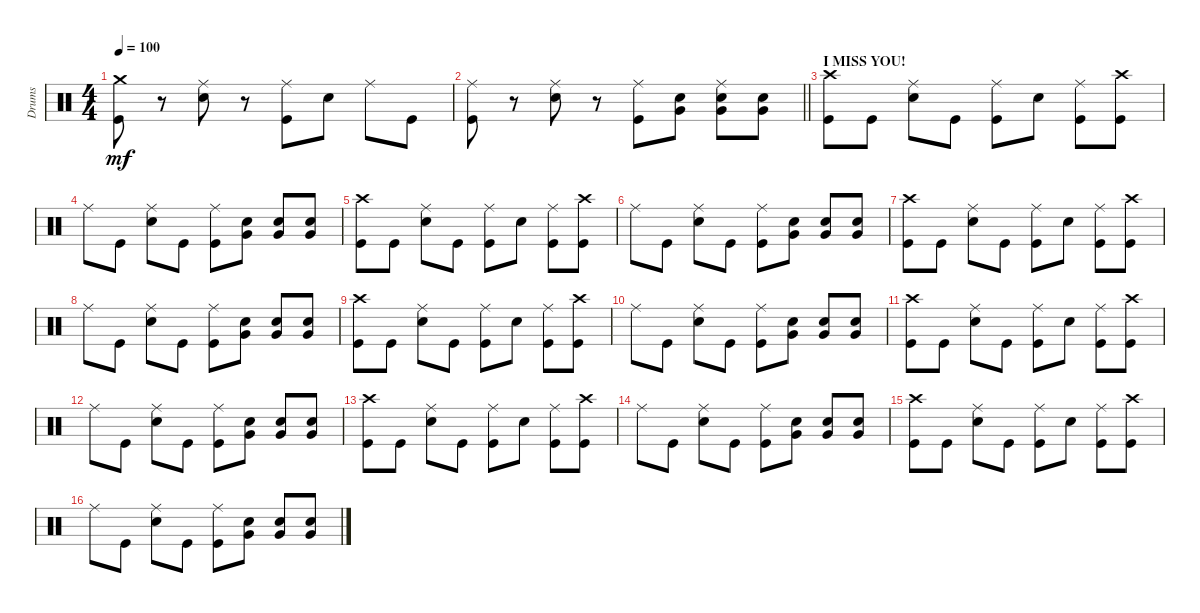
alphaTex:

\track ("Drums" "Drums") {instrument percussion}
\staff {score}
\articulation defaults
\ts (4 4)
\tempo 100
\clef neutral
\ks c
("Crash medium (hit)" "Kick (hit)").8{dy mf} r.8 ("Ride (middle)" "Snare (hit) 2").8 r.8 ("Ride (middle)" "Kick (hit)").8 "Snare (hit) 2".8 "Ride (middle)".8 "Kick (hit)".8 |
\barLineRight lightlight
("Ride (middle)" "Kick (hit)").8 r.8 ("Ride (middle)" "Snare (hit) 2").8 r.8 ("Ride (middle)" "Kick (hit)").8 ("Very Low Tom (hit)" "Snare (hit) 2").8 ("Ride (middle)" "Very Low Tom (hit)" "Snare (hit) 2").8 ("Very Low Tom (hit)" "Snare (hit) 2").8 |
\section ("" "I MISS YOU!")
("Crash high (hit)" "Kick (hit)").8 "Kick (hit)".8 ("Ride (middle)" "Snare (hit) 2").8 "Kick (hit)".8 ("Ride (middle)" "Kick (hit)").8 "Snare (hit) 2".8 ("Ride (middle)" "Kick (hit)").8 ("Crash high (hit)" "Kick (hit)").8 |
"Ride (middle)".8 "Kick (hit)".8 ("Ride (middle)" "Snare (hit) 2").8 "Kick (hit)".8 ("Ride (middle)" "Kick (hit)").8 ("Very Low Tom (hit)" "Snare (hit) 2").8 ("Very Low Tom (hit)" "Snare (hit) 2").8 ("Very Low Tom (hit)" "Snare (hit) 2").8 |
("Crash high (hit)" "Kick (hit)").8 "Kick (hit)".8 ("Ride (middle)" "Snare (hit) 2").8 "Kick (hit)".8 ("Ride (middle)" "Kick (hit)").8 "Snare (hit) 2".8 ("Ride (middle)" "Kick (hit)").8 ("Crash high (hit)" "Kick (hit)").8 |
"Ride (middle)".8 "Kick (hit)".8 ("Ride (middle)" "Snare (hit) 2").8 "Kick (hit)".8 ("Ride (middle)" "Kick (hit)").8 ("Very Low Tom (hit)" "Snare (hit) 2").8 ("Very Low Tom (hit)" "Snare (hit) 2").8 ("Very Low Tom (hit)" "Snare (hit) 2").8 |
("Crash high (hit)" "Kick (hit)").8 "Kick (hit)".8 ("Ride (middle)" "Snare (hit) 2").8 "Kick (hit)".8 ("Ride (middle)" "Kick (hit)").8 "Snare (hit) 2".8 ("Ride (middle)" "Kick (hit)").8 ("Crash high (hit)" "Kick (hit)").8 |
"Ride (middle)".8 "Kick (hit)".8 ("Ride (middle)" "Snare (hit) 2").8 "Kick (hit)".8 ("Ride (middle)" "Kick (hit)").8 ("Very Low Tom (hit)" "Snare (hit) 2").8 ("Very Low Tom (hit)" "Snare (hit) 2").8 ("Very Low Tom (hit)" "Snare (hit) 2").8 |
("Crash high (hit)" "Kick (hit)").8 "Kick (hit)".8 ("Ride (middle)" "Snare (hit) 2").8 "Kick (hit)".8 ("Ride (middle)" "Kick (hit)").8 "Snare (hit) 2".8 ("Ride (middle)" "Kick (hit)").8 ("Crash high (hit)" "Kick (hit)").8 |
"Ride (middle)".8 "Kick (hit)".8 ("Ride (middle)" "Snare (hit) 2").8 "Kick (hit)".8 ("Ride (middle)" "Kick (hit)").8 ("Very Low Tom (hit)" "Snare (hit) 2").8 ("Very Low Tom (hit)" "Snare (hit) 2").8 ("Very Low Tom (hit)" "Snare (hit) 2").8 |
("Crash high (hit)" "Kick (hit)").8 "Kick (hit)".8 ("Ride (middle)" "Snare (hit) 2").8 "Kick (hit)".8 ("Ride (middle)" "Kick (hit)").8 "Snare (hit) 2".8 ("Ride (middle)" "Kick (hit)").8 ("Crash high (hit)" "Kick (hit)").8 |
"Ride (middle)".8 "Kick (hit)".8 ("Ride (middle)" "Snare (hit) 2").8 "Kick (hit)".8 ("Ride (middle)" "Kick (hit)").8 ("Very Low Tom (hit)" "Snare (hit) 2").8 ("Very Low Tom (hit)" "Snare (hit) 2").8 ("Very Low Tom (hit)" "Snare (hit) 2").8 |
("Crash high (hit)" "Kick (hit)").8 "Kick (hit)".8 ("Ride (middle)" "Snare (hit) 2").8 "Kick (hit)".8 ("Ride (middle)" "Kick (hit)").8 "Snare (hit) 2".8 ("Ride (middle)" "Kick (hit)").8 ("Crash high (hit)" "Kick (hit)").8 |
"Ride (middle)".8 "Kick (hit)".8 ("Ride (middle)" "Snare (hit) 2").8 "Kick (hit)".8 ("Ride (middle)" "Kick (hit)").8 ("Very Low Tom (hit)" "Snare (hit) 2").8 ("Very Low Tom (hit)" "Snare (hit) 2").8 ("Very Low Tom (hit)" "Snare (hit) 2").8 |
("Crash high (hit)" "Kick (hit)").8 "Kick (hit)".8 ("Ride (middle)" "Snare (hit) 2").8 "Kick (hit)".8 ("Ride (middle)" "Kick (hit)").8 "Snare (hit) 2".8 ("Ride (middle)" "Kick (hit)").8 ("Crash high (hit)" "Kick (hit)").8 |
"Ride (middle)".8 "Kick (hit)".8 ("Ride (middle)" "Snare (hit) 2").8 "Kick (hit)".8 ("Ride (middle)" "Kick (hit)").8 ("Very Low Tom (hit)" "Snare (hit) 2").8 ("Very Low Tom (hit)" "Snare (hit) 2").8 ("Very Low Tom (hit)" "Snare (hit) 2").8
